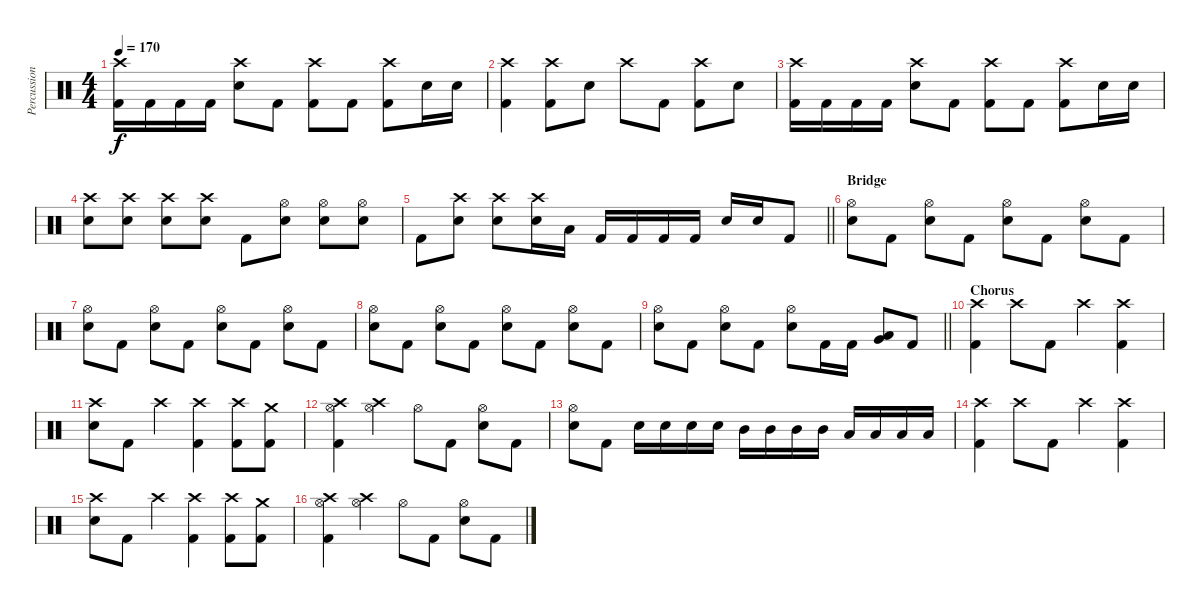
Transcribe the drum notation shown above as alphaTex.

\track ("Percussion" "Percussion") {instrument percussion}
\staff {score}
\articulation defaults
\ts (4 4)
\tempo 170
\clef neutral
\ks c
("Crash high (hit)" "Kick (hit) 2").16{dy f} "Kick (hit) 2".16 "Kick (hit) 2".16 "Kick (hit) 2".16 ("Crash high (hit)" "Electric Snare (hit)").8 "Kick (hit) 2".8 ("Crash high (hit)" "Kick (hit) 2").8 "Kick (hit) 2".8 ("Crash high (hit)" "Kick (hit) 2").8 "Electric Snare (hit)".16 "Electric Snare (hit)".16 |
("Crash high (hit)" "Kick (hit) 2").4 ("Crash high (hit)" "Kick (hit) 2").8 "Electric Snare (hit)".8 "Crash high (hit)".8 "Kick (hit) 2".8 ("Crash high (hit)" "Kick (hit) 2").8 "Electric Snare (hit)".8 |
("Crash high (hit)" "Kick (hit) 2").16 "Kick (hit) 2".16 "Kick (hit) 2".16 "Kick (hit) 2".16 ("Crash high (hit)" "Electric Snare (hit)").8 "Kick (hit) 2".8 ("Crash high (hit)" "Kick (hit) 2").8 "Kick (hit) 2".8 ("Crash high (hit)" "Kick (hit) 2").8 "Electric Snare (hit)".16 "Electric Snare (hit)".16 |
("Crash high (hit)" "Electric Snare (hit)").8 ("Crash high (hit)" "Electric Snare (hit)").8 ("Crash high (hit)" "Electric Snare (hit)").8 ("Crash high (hit)" "Electric Snare (hit)").8 "Kick (hit) 2".8 ("Hi-Hat (open)" "Electric Snare (hit)").8 ("Hi-Hat (open)" "Electric Snare (hit)").8 ("Hi-Hat (open)" "Electric Snare (hit)").8 |
\barLineRight lightlight "Kick (hit) 2".8
("Crash high (hit)" "Electric Snare (hit)").8 ("Crash high (hit)" "Electric Snare (hit)").8 ("Crash high (hit)" "Electric Snare (hit)").16 "Low Tom (hit)".16 "Kick (hit) 2".16 "Kick (hit) 2".16 "Kick (hit) 2".16 "Kick (hit) 2".16 "Electric Snare (hit)".16 "Electric Snare (hit)".16 "Kick (hit) 2".8 |
\section ("" "Bridge")
("Hi-Hat (open)" "Electric Snare (hit)").8 "Kick (hit) 2".8 ("Hi-Hat (open)" "Electric Snare (hit)").8 "Kick (hit) 2".8 ("Hi-Hat (open)" "Electric Snare (hit)").8 "Kick (hit) 2".8 ("Hi-Hat (open)" "Electric Snare (hit)").8 "Kick (hit) 2".8 |
("Hi-Hat (open)" "Electric Snare (hit)").8 "Kick (hit) 2".8 ("Hi-Hat (open)" "Electric Snare (hit)").8 "Kick (hit) 2".8 ("Hi-Hat (open)" "Electric Snare (hit)").8 "Kick (hit) 2".8 ("Hi-Hat (open)" "Electric Snare (hit)").8 "Kick (hit) 2".8 |
("Hi-Hat (open)" "Electric Snare (hit)").8 "Kick (hit) 2".8 ("Hi-Hat (open)" "Electric Snare (hit)").8 "Kick (hit) 2".8 ("Hi-Hat (open)" "Electric Snare (hit)").8 "Kick (hit) 2".8 ("Hi-Hat (open)" "Electric Snare (hit)").8 "Kick (hit) 2".8 |
\barLineRight lightlight
("Hi-Hat (open)" "Electric Snare (hit)").8 "Kick (hit) 2".8 ("Hi-Hat (open)" "Electric Snare (hit)").8 "Kick (hit) 2".8 ("Hi-Hat (open)" "Electric Snare (hit)").8 "Kick (hit) 2".16 "Kick (hit) 2".16 ("Low Tom (hit)" "Very Low Tom (hit)").8 "Kick (hit) 2".8 |
\section ("" "Chorus")
("Crash high (hit)" "Kick (hit) 2").4 "Crash high (hit)".8 "Kick (hit) 2".8 "Crash high (hit)".4 ("Crash high (hit)" "Kick (hit) 2").4 |
("Crash high (hit)" "Electric Snare (hit)").8 "Kick (hit) 2".8 "Crash high (hit)".4 ("Crash high (hit)" "Kick (hit) 2").4 ("Crash high (hit)" "Kick (hit) 2").8 ("Crash medium (hit)" "Kick (hit) 2").8 |
("Hi-Hat (open)" "Crash high (hit)" "Kick (hit) 2").4 ("Hi-Hat (open)" "Crash high (hit)").4 "Hi-Hat (open)".8 "Kick (hit) 2".8 ("Hi-Hat (open)" "Electric Snare (hit)").8 "Kick (hit) 2".8 |
("Hi-Hat (open)" "Electric Snare (hit)").8 "Kick (hit) 2".8 "Electric Snare (hit)".16 "Electric Snare (hit)".16 "Electric Snare (hit)".16 "Electric Snare (hit)".16 "Mid Tom (hit)".16 "Mid Tom (hit)".16 "Mid Tom (hit)".16 "Mid Tom (hit)".16 "Low Tom (hit)".16 "Low Tom (hit)".16 "Low Tom (hit)".16 "Low Tom (hit)".16 |
("Crash high (hit)" "Kick (hit) 2").4 "Crash high (hit)".8 "Kick (hit) 2".8 "Crash high (hit)".4 ("Crash high (hit)" "Kick (hit) 2").4 |
("Crash high (hit)" "Electric Snare (hit)").8 "Kick (hit) 2".8 "Crash high (hit)".4 ("Crash high (hit)" "Kick (hit) 2").4 ("Crash high (hit)" "Kick (hit) 2").8 ("Crash medium (hit)" "Kick (hit) 2").8 |
("Hi-Hat (open)" "Crash high (hit)" "Kick (hit) 2").4 ("Hi-Hat (open)" "Crash high (hit)").4 "Hi-Hat (open)".8 "Kick (hit) 2".8 ("Hi-Hat (open)" "Electric Snare (hit)").8 "Kick (hit) 2".8
